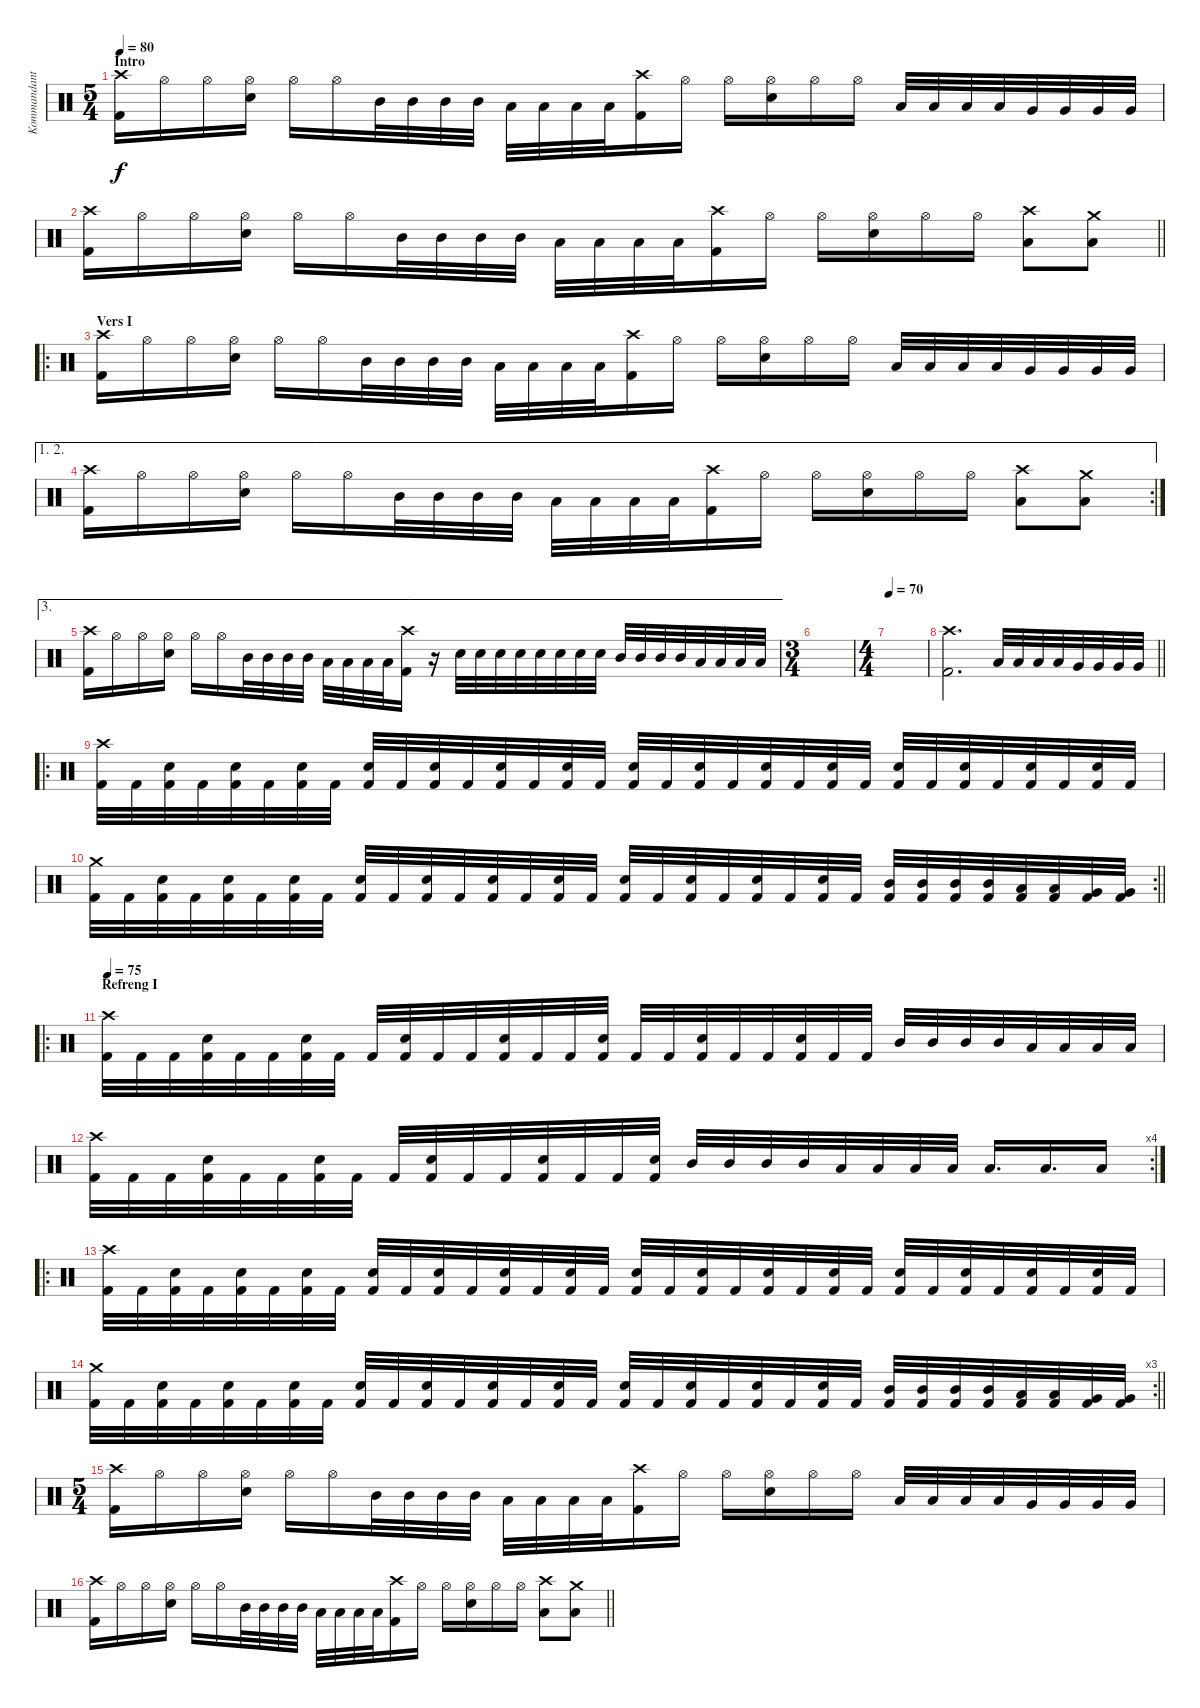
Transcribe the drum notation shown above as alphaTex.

\track ("Kommandanten" "Kommandant") {instrument percussion}
\staff {score}
\articulation defaults
\ts (5 4)
\section ("" "Intro")
\tempo 80
\clef neutral
\ks c
("Crash high (hit)" "Kick (hit) 2").16{dy f} "Hi-Hat (open)".16 "Hi-Hat (open)".16 ("Hi-Hat (open)" "Snare (hit) 2").16 "Hi-Hat (open)".16 "Hi-Hat (open)".16 "Mid Tom (hit)".32 "Mid Tom (hit)".32 "Mid Tom (hit)".32 "Mid Tom (hit)".32 "Low Tom (hit)".32 "Low Tom (hit)".32 "Low Tom (hit)".32 "Low Tom (hit)".32 ("Crash high (hit)" "Kick (hit) 2").16 "Hi-Hat (open)".16 "Hi-Hat (open)".16 ("Hi-Hat (open)" "Snare (hit) 2").16 "Hi-Hat (open)".16 "Hi-Hat (open)".16 "Low Tom (hit)".32 "Low Tom (hit)".32 "Low Tom (hit)".32 "Low Tom (hit)".32 "Very Low Tom (hit)".32 "Very Low Tom (hit)".32 "Very Low Tom (hit)".32 "Very Low Tom (hit)".32 |
\barLineRight lightlight
("Crash high (hit)" "Kick (hit) 2").16 "Hi-Hat (open)".16 "Hi-Hat (open)".16 ("Hi-Hat (open)" "Snare (hit) 2").16 "Hi-Hat (open)".16 "Hi-Hat (open)".16 "Mid Tom (hit)".32 "Mid Tom (hit)".32 "Mid Tom (hit)".32 "Mid Tom (hit)".32 "Low Tom (hit)".32 "Low Tom (hit)".32 "Low Tom (hit)".32 "Low Tom (hit)".32 ("Crash high (hit)" "Kick (hit) 2").16 "Hi-Hat (open)".16 "Hi-Hat (open)".16 ("Hi-Hat (open)" "Snare (hit) 2").16 "Hi-Hat (open)".16 "Hi-Hat (open)".16 ("Crash high (hit)" "Low Floor Tom (hit)").8 ("Crash medium (hit)" "Low Floor Tom (hit)").8 |
\ro
\section ("" "Vers I")
("Crash high (hit)" "Kick (hit) 2").16 "Hi-Hat (open)".16 "Hi-Hat (open)".16 ("Hi-Hat (open)" "Snare (hit) 2").16 "Hi-Hat (open)".16 "Hi-Hat (open)".16 "Mid Tom (hit)".32 "Mid Tom (hit)".32 "Mid Tom (hit)".32 "Mid Tom (hit)".32 "Low Tom (hit)".32 "Low Tom (hit)".32 "Low Tom (hit)".32 "Low Tom (hit)".32 ("Crash high (hit)" "Kick (hit) 2").16 "Hi-Hat (open)".16 "Hi-Hat (open)".16 ("Hi-Hat (open)" "Snare (hit) 2").16 "Hi-Hat (open)".16 "Hi-Hat (open)".16 "Low Tom (hit)".32 "Low Tom (hit)".32 "Low Tom (hit)".32 "Low Tom (hit)".32 "Very Low Tom (hit)".32 "Very Low Tom (hit)".32 "Very Low Tom (hit)".32 "Very Low Tom (hit)".32 |
\ae (1 2)
\rc 2
("Crash high (hit)" "Kick (hit) 2").16 "Hi-Hat (open)".16 "Hi-Hat (open)".16 ("Hi-Hat (open)" "Snare (hit) 2").16 "Hi-Hat (open)".16 "Hi-Hat (open)".16 "Mid Tom (hit)".32 "Mid Tom (hit)".32 "Mid Tom (hit)".32 "Mid Tom (hit)".32 "Low Tom (hit)".32 "Low Tom (hit)".32 "Low Tom (hit)".32 "Low Tom (hit)".32 ("Crash high (hit)" "Kick (hit) 2").16 "Hi-Hat (open)".16 "Hi-Hat (open)".16 ("Hi-Hat (open)" "Snare (hit) 2").16 "Hi-Hat (open)".16 "Hi-Hat (open)".16 ("Crash high (hit)" "Low Floor Tom (hit)").8 ("Crash medium (hit)" "Low Floor Tom (hit)").8 |
\ae 3
("Crash high (hit)" "Kick (hit) 2").16 "Hi-Hat (open)".16 "Hi-Hat (open)".16 ("Hi-Hat (open)" "Snare (hit) 2").16 "Hi-Hat (open)".16 "Hi-Hat (open)".16 "Mid Tom (hit)".32 "Mid Tom (hit)".32 "Mid Tom (hit)".32 "Mid Tom (hit)".32 "Low Tom (hit)".32 "Low Tom (hit)".32 "Low Tom (hit)".32 "Low Tom (hit)".32 ("Crash high (hit)" "Kick (hit) 2").16 r.16 "Snare (hit) 2".32 "Snare (hit) 2".32 "Snare (hit) 2".32 "Snare (hit) 2".32 "Snare (hit) 2".32 "Snare (hit) 2".32 "Snare (hit) 2".32 "Snare (hit) 2".32 "Mid Tom (hit)".32 "Mid Tom (hit)".32 "Mid Tom (hit)".32 "Mid Tom (hit)".32 "Low Tom (hit)".32 "Low Tom (hit)".32 "Low Tom (hit)".32 "Low Tom (hit)".32 |
\ts (3 4)
|
\ts (4 4)
\tempo 70
|
\barLineRight lightlight
("Crash high (hit)" "Kick (hit) 2").2{d} "Low Tom (hit)".32 "Low Tom (hit)".32 "Low Tom (hit)".32 "Low Tom (hit)".32 "Very Low Tom (hit)".32 "Very Low Tom (hit)".32 "Very Low Tom (hit)".32 "Very Low Tom (hit)".32 |
\ro
("Crash high (hit)" "Kick (hit) 2").32 "Kick (hit) 2".32 ("Snare (hit) 2" "Kick (hit) 2").32 "Kick (hit) 2".32 ("Snare (hit) 2" "Kick (hit) 2").32 "Kick (hit) 2".32 ("Snare (hit) 2" "Kick (hit) 2").32 "Kick (hit) 2".32 ("Snare (hit) 2" "Kick (hit) 2").32 "Kick (hit) 2".32 ("Snare (hit) 2" "Kick (hit) 2").32 "Kick (hit) 2".32 ("Snare (hit) 2" "Kick (hit) 2").32 "Kick (hit) 2".32 ("Snare (hit) 2" "Kick (hit) 2").32 "Kick (hit) 2".32 ("Snare (hit) 2" "Kick (hit) 2").32 "Kick (hit) 2".32 ("Snare (hit) 2" "Kick (hit) 2").32 "Kick (hit) 2".32 ("Snare (hit) 2" "Kick (hit) 2").32 "Kick (hit) 2".32 ("Snare (hit) 2" "Kick (hit) 2").32 "Kick (hit) 2".32 ("Snare (hit) 2" "Kick (hit) 2").32 "Kick (hit) 2".32 ("Snare (hit) 2" "Kick (hit) 2").32 "Kick (hit) 2".32 ("Snare (hit) 2" "Kick (hit) 2").32 "Kick (hit) 2".32 ("Snare (hit) 2" "Kick (hit) 2").32 "Kick (hit) 2".32 |
\rc 2
\barLineRight lightlight
("Crash medium (hit)" "Kick (hit) 2").32 "Kick (hit) 2".32 ("Snare (hit) 2" "Kick (hit) 2").32 "Kick (hit) 2".32 ("Snare (hit) 2" "Kick (hit) 2").32 "Kick (hit) 2".32 ("Snare (hit) 2" "Kick (hit) 2").32 "Kick (hit) 2".32 ("Snare (hit) 2" "Kick (hit) 2").32 "Kick (hit) 2".32 ("Snare (hit) 2" "Kick (hit) 2").32 "Kick (hit) 2".32 ("Snare (hit) 2" "Kick (hit) 2").32 "Kick (hit) 2".32 ("Snare (hit) 2" "Kick (hit) 2").32 "Kick (hit) 2".32 ("Snare (hit) 2" "Kick (hit) 2").32 "Kick (hit) 2".32 ("Snare (hit) 2" "Kick (hit) 2").32 "Kick (hit) 2".32 ("Snare (hit) 2" "Kick (hit) 2").32 "Kick (hit) 2".32 ("Snare (hit) 2" "Kick (hit) 2").32 "Kick (hit) 2".32 ("Mid Tom (hit)" "Kick (hit) 2").32 ("Mid Tom (hit)" "Kick (hit) 2").32 ("Mid Tom (hit)" "Kick (hit) 2").32 ("Mid Tom (hit)" "Kick (hit) 2").32 ("Low Tom (hit)" "Kick (hit) 2").32 ("Low Tom (hit)" "Kick (hit) 2").32 ("Very Low Tom (hit)" "Kick (hit) 2").32 ("Very Low Tom (hit)" "Kick (hit) 2").32 |
\ro
\section ("" "Refreng I")
\tempo 75
("Crash high (hit)" "Kick (hit) 2").32 "Kick (hit) 2".32 "Kick (hit) 2".32 ("Snare (hit) 2" "Kick (hit) 2").32 "Kick (hit) 2".32 "Kick (hit) 2".32 ("Snare (hit) 2" "Kick (hit) 2").32 "Kick (hit) 2".32 "Kick (hit) 2".32 ("Snare (hit) 2" "Kick (hit) 2").32 "Kick (hit) 2".32 "Kick (hit) 2".32 ("Snare (hit) 2" "Kick (hit) 2").32 "Kick (hit) 2".32 "Kick (hit) 2".32 ("Snare (hit) 2" "Kick (hit) 2").32 "Kick (hit) 2".32 "Kick (hit) 2".32 ("Snare (hit) 2" "Kick (hit) 2").32 "Kick (hit) 2".32 "Kick (hit) 2".32 ("Snare (hit) 2" "Kick (hit) 2").32 "Kick (hit) 2".32 "Kick (hit) 2".32 "Mid Tom (hit)".32 "Mid Tom (hit)".32 "Mid Tom (hit)".32 "Mid Tom (hit)".32 "Low Tom (hit)".32 "Low Tom (hit)".32 "Low Tom (hit)".32 "Low Tom (hit)".32 |
\rc 4
("Crash high (hit)" "Kick (hit) 2").32 "Kick (hit) 2".32 "Kick (hit) 2".32 ("Snare (hit) 2" "Kick (hit) 2").32 "Kick (hit) 2".32 "Kick (hit) 2".32 ("Snare (hit) 2" "Kick (hit) 2").32 "Kick (hit) 2".32 "Kick (hit) 2".32 ("Snare (hit) 2" "Kick (hit) 2").32 "Kick (hit) 2".32 "Kick (hit) 2".32 ("Snare (hit) 2" "Kick (hit) 2").32 "Kick (hit) 2".32 "Kick (hit) 2".32 ("Snare (hit) 2" "Kick (hit) 2").32 "Mid Tom (hit)".32 "Mid Tom (hit)".32 "Mid Tom (hit)".32 "Mid Tom (hit)".32 "Low Tom (hit)".32 "Low Tom (hit)".32 "Low Tom (hit)".32 "Low Tom (hit)".32 "Low Floor Tom (hit)".16{d} "Low Floor Tom (hit)".16{d} "Low Floor Tom (hit)".16 |
\ro
("Crash high (hit)" "Kick (hit) 2").32 "Kick (hit) 2".32 ("Snare (hit) 2" "Kick (hit) 2").32 "Kick (hit) 2".32 ("Snare (hit) 2" "Kick (hit) 2").32 "Kick (hit) 2".32 ("Snare (hit) 2" "Kick (hit) 2").32 "Kick (hit) 2".32 ("Snare (hit) 2" "Kick (hit) 2").32 "Kick (hit) 2".32 ("Snare (hit) 2" "Kick (hit) 2").32 "Kick (hit) 2".32 ("Snare (hit) 2" "Kick (hit) 2").32 "Kick (hit) 2".32 ("Snare (hit) 2" "Kick (hit) 2").32 "Kick (hit) 2".32 ("Snare (hit) 2" "Kick (hit) 2").32 "Kick (hit) 2".32 ("Snare (hit) 2" "Kick (hit) 2").32 "Kick (hit) 2".32 ("Snare (hit) 2" "Kick (hit) 2").32 "Kick (hit) 2".32 ("Snare (hit) 2" "Kick (hit) 2").32 "Kick (hit) 2".32 ("Snare (hit) 2" "Kick (hit) 2").32 "Kick (hit) 2".32 ("Snare (hit) 2" "Kick (hit) 2").32 "Kick (hit) 2".32 ("Snare (hit) 2" "Kick (hit) 2").32 "Kick (hit) 2".32 ("Snare (hit) 2" "Kick (hit) 2").32 "Kick (hit) 2".32 |
\rc 3
\barLineRight lightlight
("Crash medium (hit)" "Kick (hit) 2").32 "Kick (hit) 2".32 ("Snare (hit) 2" "Kick (hit) 2").32 "Kick (hit) 2".32 ("Snare (hit) 2" "Kick (hit) 2").32 "Kick (hit) 2".32 ("Snare (hit) 2" "Kick (hit) 2").32 "Kick (hit) 2".32 ("Snare (hit) 2" "Kick (hit) 2").32 "Kick (hit) 2".32 ("Snare (hit) 2" "Kick (hit) 2").32 "Kick (hit) 2".32 ("Snare (hit) 2" "Kick (hit) 2").32 "Kick (hit) 2".32 ("Snare (hit) 2" "Kick (hit) 2").32 "Kick (hit) 2".32 ("Snare (hit) 2" "Kick (hit) 2").32 "Kick (hit) 2".32 ("Snare (hit) 2" "Kick (hit) 2").32 "Kick (hit) 2".32 ("Snare (hit) 2" "Kick (hit) 2").32 "Kick (hit) 2".32 ("Snare (hit) 2" "Kick (hit) 2").32 "Kick (hit) 2".32 ("Mid Tom (hit)" "Kick (hit) 2").32 ("Mid Tom (hit)" "Kick (hit) 2").32 ("Mid Tom (hit)" "Kick (hit) 2").32 ("Mid Tom (hit)" "Kick (hit) 2").32 ("Low Tom (hit)" "Kick (hit) 2").32 ("Low Tom (hit)" "Kick (hit) 2").32 ("Very Low Tom (hit)" "Kick (hit) 2").32 ("Very Low Tom (hit)" "Kick (hit) 2").32 |
\ts (5 4)
("Crash high (hit)" "Kick (hit) 2").16 "Hi-Hat (open)".16 "Hi-Hat (open)".16 ("Hi-Hat (open)" "Snare (hit) 2").16 "Hi-Hat (open)".16 "Hi-Hat (open)".16 "Mid Tom (hit)".32 "Mid Tom (hit)".32 "Mid Tom (hit)".32 "Mid Tom (hit)".32 "Low Tom (hit)".32 "Low Tom (hit)".32 "Low Tom (hit)".32 "Low Tom (hit)".32 ("Crash high (hit)" "Kick (hit) 2").16 "Hi-Hat (open)".16 "Hi-Hat (open)".16 ("Hi-Hat (open)" "Snare (hit) 2").16 "Hi-Hat (open)".16 "Hi-Hat (open)".16 "Low Tom (hit)".32 "Low Tom (hit)".32 "Low Tom (hit)".32 "Low Tom (hit)".32 "Very Low Tom (hit)".32 "Very Low Tom (hit)".32 "Very Low Tom (hit)".32 "Very Low Tom (hit)".32 |
\barLineRight lightlight
("Crash high (hit)" "Kick (hit) 2").16 "Hi-Hat (open)".16 "Hi-Hat (open)".16 ("Hi-Hat (open)" "Snare (hit) 2").16 "Hi-Hat (open)".16 "Hi-Hat (open)".16 "Mid Tom (hit)".32 "Mid Tom (hit)".32 "Mid Tom (hit)".32 "Mid Tom (hit)".32 "Low Tom (hit)".32 "Low Tom (hit)".32 "Low Tom (hit)".32 "Low Tom (hit)".32 ("Crash high (hit)" "Kick (hit) 2").16 "Hi-Hat (open)".16 "Hi-Hat (open)".16 ("Hi-Hat (open)" "Snare (hit) 2").16 "Hi-Hat (open)".16 "Hi-Hat (open)".16 ("Crash high (hit)" "Low Floor Tom (hit)").8 ("Crash medium (hit)" "Low Floor Tom (hit)").8
